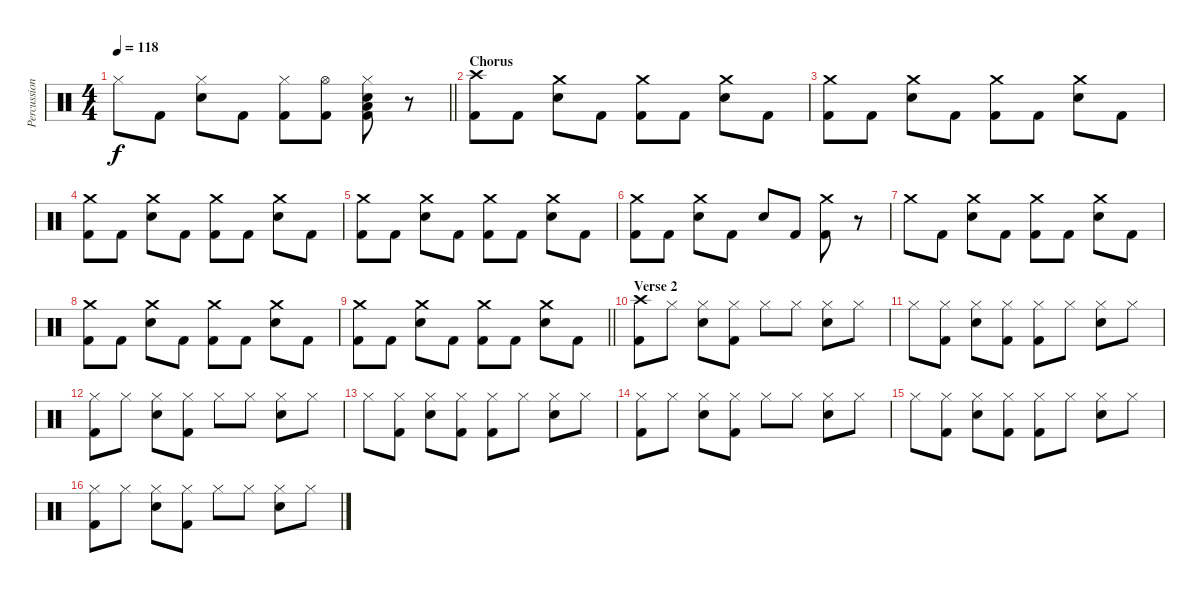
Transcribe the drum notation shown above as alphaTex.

\track ("Percussion" "Percussion") {instrument percussion}
\staff {score}
\articulation defaults
\ts (4 4)
\tempo 118
\clef neutral
\barLineRight lightlight
\ks c "Hi-Hat (closed)".8{dy f} "Kick (hit) 2".8
("Hi-Hat (closed)" "Electric Snare (hit)").8 "Kick (hit) 2".8 ("Hi-Hat (closed)" "Kick (hit) 2").8 ("Hi-Hat (open)" "Kick (hit) 2").8 ("Hi-Hat (closed)" "Electric Snare (hit)" "Low Floor Tom (hit)" "Kick (hit) 2").8 r.8 |
\section ("" "Chorus")
("Crash high (hit)" "Kick (hit) 2").8 "Kick (hit) 2".8 ("Crash medium (hit)" "Electric Snare (hit)").8 "Kick (hit) 2".8 ("Crash medium (hit)" "Kick (hit) 2").8 "Kick (hit) 2".8 ("Crash medium (hit)" "Electric Snare (hit)").8 "Kick (hit) 2".8 |
("Crash medium (hit)" "Kick (hit) 2").8 "Kick (hit) 2".8 ("Crash medium (hit)" "Electric Snare (hit)").8 "Kick (hit) 2".8 ("Crash medium (hit)" "Kick (hit) 2").8 "Kick (hit) 2".8 ("Crash medium (hit)" "Electric Snare (hit)").8 "Kick (hit) 2".8 |
("Crash medium (hit)" "Kick (hit) 2").8 "Kick (hit) 2".8 ("Crash medium (hit)" "Electric Snare (hit)").8 "Kick (hit) 2".8 ("Crash medium (hit)" "Kick (hit) 2").8 "Kick (hit) 2".8 ("Crash medium (hit)" "Electric Snare (hit)").8 "Kick (hit) 2".8 |
("Crash medium (hit)" "Kick (hit) 2").8 "Kick (hit) 2".8 ("Crash medium (hit)" "Electric Snare (hit)").8 "Kick (hit) 2".8 ("Crash medium (hit)" "Kick (hit) 2").8 "Kick (hit) 2".8 ("Crash medium (hit)" "Electric Snare (hit)").8 "Kick (hit) 2".8 |
("Crash medium (hit)" "Kick (hit) 2").8 "Kick (hit) 2".8 ("Crash medium (hit)" "Electric Snare (hit)").8 "Kick (hit) 2".8 "Electric Snare (hit)".8 "Kick (hit) 2".8 ("Crash medium (hit)" "Kick (hit) 2").8 r.8 |
"Crash medium (hit)".8 "Kick (hit) 2".8 ("Crash medium (hit)" "Electric Snare (hit)").8 "Kick (hit) 2".8 ("Crash medium (hit)" "Kick (hit) 2").8 "Kick (hit) 2".8 ("Crash medium (hit)" "Electric Snare (hit)").8 "Kick (hit) 2".8 |
("Crash medium (hit)" "Kick (hit) 2").8 "Kick (hit) 2".8 ("Crash medium (hit)" "Electric Snare (hit)").8 "Kick (hit) 2".8 ("Crash medium (hit)" "Kick (hit) 2").8 "Kick (hit) 2".8 ("Crash medium (hit)" "Electric Snare (hit)").8 "Kick (hit) 2".8 |
\barLineRight lightlight
("Crash medium (hit)" "Kick (hit) 2").8 "Kick (hit) 2".8 ("Crash medium (hit)" "Electric Snare (hit)").8 "Kick (hit) 2".8 ("Crash medium (hit)" "Kick (hit) 2").8 "Kick (hit) 2".8 ("Crash medium (hit)" "Electric Snare (hit)").8 "Kick (hit) 2".8 |
\section ("" "Verse 2")
("Crash high (hit)" "Kick (hit) 2").8 "Hi-Hat (closed)".8 ("Hi-Hat (closed)" "Electric Snare (hit)").8 ("Hi-Hat (closed)" "Kick (hit) 2").8 "Hi-Hat (closed)".8 "Hi-Hat (closed)".8 ("Hi-Hat (closed)" "Electric Snare (hit)").8 "Hi-Hat (closed)".8 |
"Hi-Hat (closed)".8 ("Hi-Hat (closed)" "Kick (hit) 2").8 ("Hi-Hat (closed)" "Electric Snare (hit)").8 ("Hi-Hat (closed)" "Kick (hit) 2").8 ("Hi-Hat (closed)" "Kick (hit) 2").8 "Hi-Hat (closed)".8 ("Hi-Hat (closed)" "Electric Snare (hit)").8 "Hi-Hat (closed)".8 |
("Hi-Hat (closed)" "Kick (hit) 2").8 "Hi-Hat (closed)".8 ("Hi-Hat (closed)" "Electric Snare (hit)").8 ("Hi-Hat (closed)" "Kick (hit) 2").8 "Hi-Hat (closed)".8 "Hi-Hat (closed)".8 ("Hi-Hat (closed)" "Electric Snare (hit)").8 "Hi-Hat (closed)".8 |
"Hi-Hat (closed)".8 ("Hi-Hat (closed)" "Kick (hit) 2").8 ("Hi-Hat (closed)" "Electric Snare (hit)").8 ("Hi-Hat (closed)" "Kick (hit) 2").8 ("Hi-Hat (closed)" "Kick (hit) 2").8 "Hi-Hat (closed)".8 ("Hi-Hat (closed)" "Electric Snare (hit)").8 "Hi-Hat (closed)".8 |
("Hi-Hat (closed)" "Kick (hit) 2").8 "Hi-Hat (closed)".8 ("Hi-Hat (closed)" "Electric Snare (hit)").8 ("Hi-Hat (closed)" "Kick (hit) 2").8 "Hi-Hat (closed)".8 "Hi-Hat (closed)".8 ("Hi-Hat (closed)" "Electric Snare (hit)").8 "Hi-Hat (closed)".8 |
"Hi-Hat (closed)".8 ("Hi-Hat (closed)" "Kick (hit) 2").8 ("Hi-Hat (closed)" "Electric Snare (hit)").8 ("Hi-Hat (closed)" "Kick (hit) 2").8 ("Hi-Hat (closed)" "Kick (hit) 2").8 "Hi-Hat (closed)".8 ("Hi-Hat (closed)" "Electric Snare (hit)").8 "Hi-Hat (closed)".8 |
("Hi-Hat (closed)" "Kick (hit) 2").8 "Hi-Hat (closed)".8 ("Hi-Hat (closed)" "Electric Snare (hit)").8 ("Hi-Hat (closed)" "Kick (hit) 2").8 "Hi-Hat (closed)".8 "Hi-Hat (closed)".8 ("Hi-Hat (closed)" "Electric Snare (hit)").8 "Hi-Hat (closed)".8
